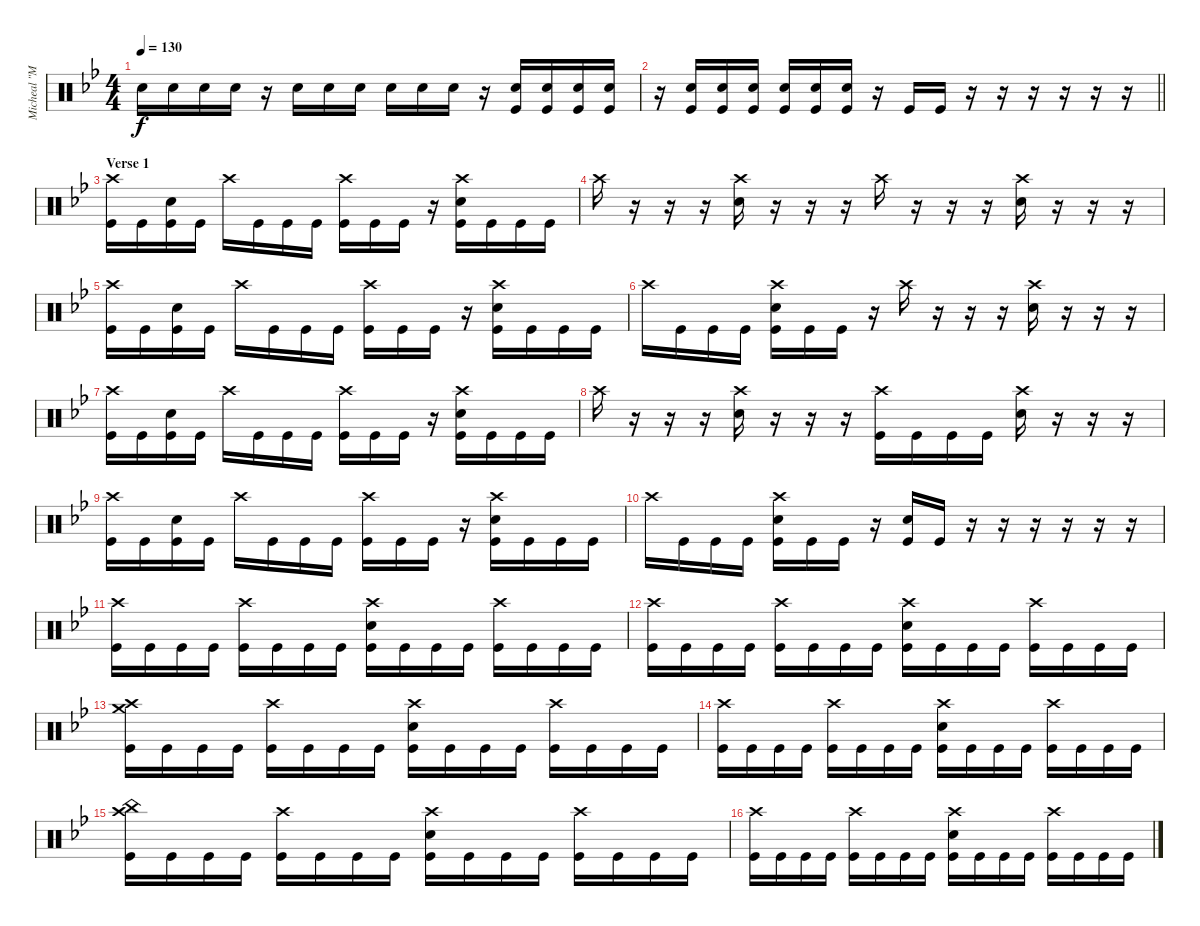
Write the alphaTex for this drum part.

\track ("Micheal \"Moose\" Thomas" "Micheal \"M") {instrument percussion}
\staff {score}
\articulation defaults
\ts (4 4)
\tempo 130
\clef neutral
\ks bb "Snare (hit) 2".16{dy f} "Snare (hit) 2".16 "Snare (hit) 2".16 "Snare (hit) 2".16
r.16 "Snare (hit) 2".16 "Snare (hit) 2".16 "Snare (hit) 2".16 "Snare (hit) 2".16 "Snare (hit) 2".16 "Snare (hit) 2".16 r.16 ("Snare (hit) 2" "Kick (hit)").16 ("Snare (hit) 2" "Kick (hit)").16 ("Snare (hit) 2" "Kick (hit)").16 ("Snare (hit) 2" "Kick (hit)").16 |
\barLineRight lightlight
r.16 ("Snare (hit) 2" "Kick (hit)").16 ("Snare (hit) 2" "Kick (hit)").16 ("Snare (hit) 2" "Kick (hit)").16 ("Snare (hit) 2" "Kick (hit)").16 ("Snare (hit) 2" "Kick (hit)").16 ("Snare (hit) 2" "Kick (hit)").16 r.16 "Kick (hit)".16 "Kick (hit)".16 r.16 r.16 r.16 r.16 r.16 r.16 |
\section ("" "Verse 1")
("Crash high (hit)" "Kick (hit)").16 "Kick (hit)".16 ("Snare (hit) 2" "Kick (hit)").16 "Kick (hit)".16 "Crash high (hit)".16 "Kick (hit)".16 "Kick (hit)".16 "Kick (hit)".16 ("Crash high (hit)" "Kick (hit)").16 "Kick (hit)".16 "Kick (hit)".16 r.16 ("Crash high (hit)" "Snare (hit) 2" "Kick (hit)").16 "Kick (hit)".16 "Kick (hit)".16 "Kick (hit)".16 |
"Crash high (hit)".16 r.16 r.16 r.16 ("Crash high (hit)" "Snare (hit) 2").16 r.16 r.16 r.16 "Crash high (hit)".16 r.16 r.16 r.16 ("Crash high (hit)" "Snare (hit) 2").16 r.16 r.16 r.16 |
("Crash high (hit)" "Kick (hit)").16 "Kick (hit)".16 ("Snare (hit) 2" "Kick (hit)").16 "Kick (hit)".16 "Crash high (hit)".16 "Kick (hit)".16 "Kick (hit)".16 "Kick (hit)".16 ("Crash high (hit)" "Kick (hit)").16 "Kick (hit)".16 "Kick (hit)".16 r.16 ("Crash high (hit)" "Snare (hit) 2" "Kick (hit)").16 "Kick (hit)".16 "Kick (hit)".16 "Kick (hit)".16 |
"Crash high (hit)".16 "Kick (hit)".16 "Kick (hit)".16 "Kick (hit)".16 ("Crash high (hit)" "Snare (hit) 2" "Kick (hit)").16 "Kick (hit)".16 "Kick (hit)".16 r.16 "Crash high (hit)".16 r.16 r.16 r.16 ("Crash high (hit)" "Snare (hit) 2").16 r.16 r.16 r.16 |
("Crash high (hit)" "Kick (hit)").16 "Kick (hit)".16 ("Snare (hit) 2" "Kick (hit)").16 "Kick (hit)".16 "Crash high (hit)".16 "Kick (hit)".16 "Kick (hit)".16 "Kick (hit)".16 ("Crash high (hit)" "Kick (hit)").16 "Kick (hit)".16 "Kick (hit)".16 r.16 ("Crash high (hit)" "Snare (hit) 2" "Kick (hit)").16 "Kick (hit)".16 "Kick (hit)".16 "Kick (hit)".16 |
"Crash high (hit)".16 r.16 r.16 r.16 ("Crash high (hit)" "Snare (hit) 2").16 r.16 r.16 r.16 ("Crash high (hit)" "Kick (hit)").16 "Kick (hit)".16 "Kick (hit)".16 "Kick (hit)".16 ("Crash high (hit)" "Snare (hit) 2").16 r.16 r.16 r.16 |
("Crash high (hit)" "Kick (hit)").16 "Kick (hit)".16 ("Snare (hit) 2" "Kick (hit)").16 "Kick (hit)".16 "Crash high (hit)".16 "Kick (hit)".16 "Kick (hit)".16 "Kick (hit)".16 ("Crash high (hit)" "Kick (hit)").16 "Kick (hit)".16 "Kick (hit)".16 r.16 ("Crash high (hit)" "Snare (hit) 2" "Kick (hit)").16 "Kick (hit)".16 "Kick (hit)".16 "Kick (hit)".16 |
"Crash high (hit)".16 "Kick (hit)".16 "Kick (hit)".16 "Kick (hit)".16 ("Crash high (hit)" "Snare (hit) 2" "Kick (hit)").16 "Kick (hit)".16 "Kick (hit)".16 r.16 ("Snare (hit) 2" "Kick (hit)").16 "Kick (hit)".16 r.16 r.16 r.16 r.16 r.16 r.16 |
("Crash high (hit)" "Kick (hit)").16 "Kick (hit)".16 "Kick (hit)".16 "Kick (hit)".16 ("Crash high (hit)" "Kick (hit)").16 "Kick (hit)".16 "Kick (hit)".16 "Kick (hit)".16 ("Crash high (hit)" "Snare (hit) 2" "Kick (hit)").16 "Kick (hit)".16 "Kick (hit)".16 "Kick (hit)".16 ("Crash high (hit)" "Kick (hit)").16 "Kick (hit)".16 "Kick (hit)".16 "Kick (hit)".16 |
("Crash high (hit)" "Kick (hit)").16 "Kick (hit)".16 "Kick (hit)".16 "Kick (hit)".16 ("Crash high (hit)" "Kick (hit)").16 "Kick (hit)".16 "Kick (hit)".16 "Kick (hit)".16 ("Crash high (hit)" "Snare (hit) 2" "Kick (hit)").16 "Kick (hit)".16 "Kick (hit)".16 "Kick (hit)".16 ("Crash high (hit)" "Kick (hit)").16 "Kick (hit)".16 "Kick (hit)".16 "Kick (hit)".16 |
("Crash high (hit)" "Crash medium (hit)" "Kick (hit)").16 "Kick (hit)".16 "Kick (hit)".16 "Kick (hit)".16 ("Crash high (hit)" "Kick (hit)").16 "Kick (hit)".16 "Kick (hit)".16 "Kick (hit)".16 ("Crash high (hit)" "Snare (hit) 2" "Kick (hit)").16 "Kick (hit)".16 "Kick (hit)".16 "Kick (hit)".16 ("Crash high (hit)" "Kick (hit)").16 "Kick (hit)".16 "Kick (hit)".16 "Kick (hit)".16 |
("Crash high (hit)" "Kick (hit)").16 "Kick (hit)".16 "Kick (hit)".16 "Kick (hit)".16 ("Crash high (hit)" "Kick (hit)").16 "Kick (hit)".16 "Kick (hit)".16 "Kick (hit)".16 ("Crash high (hit)" "Snare (hit) 2" "Kick (hit)").16 "Kick (hit)".16 "Kick (hit)".16 "Kick (hit)".16 ("Crash high (hit)" "Kick (hit)").16 "Kick (hit)".16 "Kick (hit)".16 "Kick (hit)".16 |
("Crash high (hit)" "China (hit)" "Kick (hit)").16 "Kick (hit)".16 "Kick (hit)".16 "Kick (hit)".16 ("Crash high (hit)" "Kick (hit)").16 "Kick (hit)".16 "Kick (hit)".16 "Kick (hit)".16 ("Crash high (hit)" "Snare (hit) 2" "Kick (hit)").16 "Kick (hit)".16 "Kick (hit)".16 "Kick (hit)".16 ("Crash high (hit)" "Kick (hit)").16 "Kick (hit)".16 "Kick (hit)".16 "Kick (hit)".16 |
("Crash high (hit)" "Kick (hit)").16 "Kick (hit)".16 "Kick (hit)".16 "Kick (hit)".16 ("Crash high (hit)" "Kick (hit)").16 "Kick (hit)".16 "Kick (hit)".16 "Kick (hit)".16 ("Crash high (hit)" "Snare (hit) 2" "Kick (hit)").16 "Kick (hit)".16 "Kick (hit)".16 "Kick (hit)".16 ("Crash high (hit)" "Kick (hit)").16 "Kick (hit)".16 "Kick (hit)".16 "Kick (hit)".16
